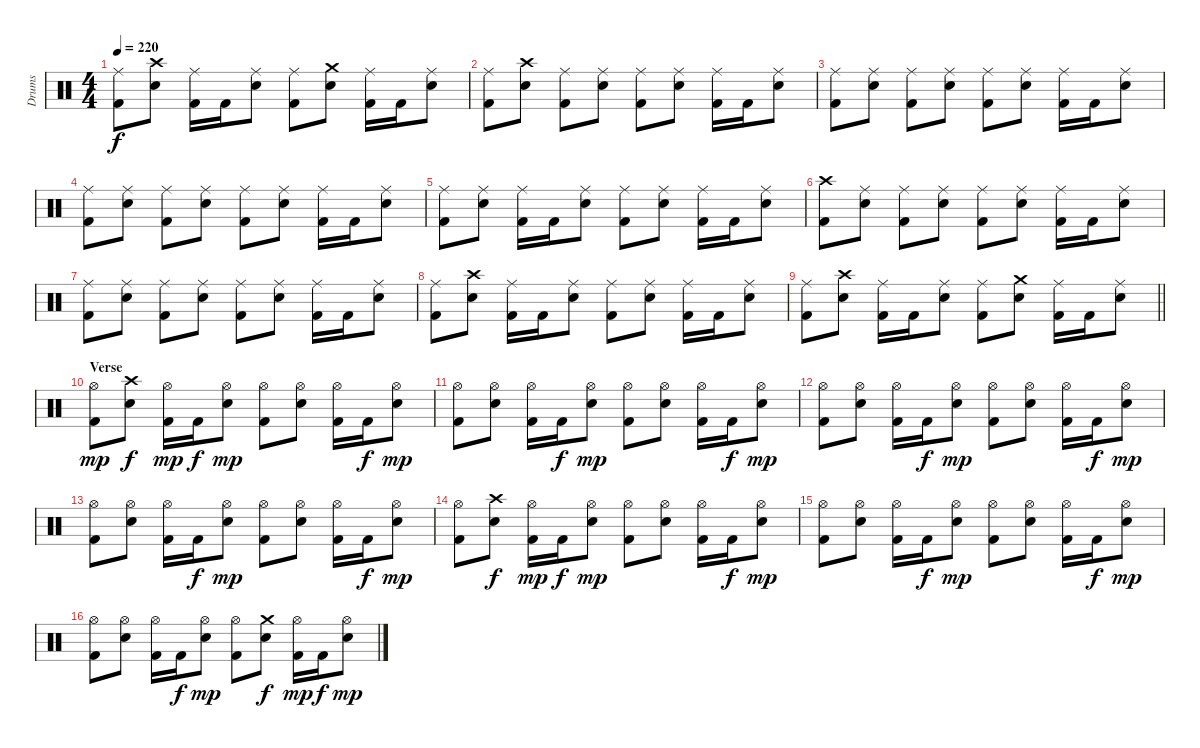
\track ("Drums" "Drums") {instrument percussion}
\staff {score}
\articulation defaults
\ts (4 4)
\tempo 220
\clef neutral
\ks c
("Ride (middle)" "Kick (hit) 2").8{dy f} ("Crash high (hit)" "Snare (hit) 2").8 ("Ride (middle)" "Kick (hit) 2").16 "Kick (hit) 2".16 ("Ride (middle)" "Snare (hit) 2").8 ("Ride (middle)" "Kick (hit) 2").8 ("Crash medium (hit)" "Snare (hit) 2").8 ("Ride (middle)" "Kick (hit) 2").16 "Kick (hit) 2".16 ("Ride (middle)" "Snare (hit) 2").8 |
("Ride (middle)" "Kick (hit) 2").8 ("Crash high (hit)" "Snare (hit) 2").8 ("Ride (middle)" "Kick (hit) 2").8 ("Ride (middle)" "Snare (hit) 2").8 ("Ride (middle)" "Kick (hit) 2").8 ("Ride (middle)" "Snare (hit) 2").8 ("Ride (middle)" "Kick (hit) 2").16 "Kick (hit) 2".16 ("Ride (middle)" "Snare (hit) 2").8 |
("Ride (middle)" "Kick (hit) 2").8 ("Ride (middle)" "Snare (hit) 2").8 ("Ride (middle)" "Kick (hit) 2").8 ("Ride (middle)" "Snare (hit) 2").8 ("Ride (middle)" "Kick (hit) 2").8 ("Ride (middle)" "Snare (hit) 2").8 ("Ride (middle)" "Kick (hit) 2").16 "Kick (hit) 2".16 ("Ride (middle)" "Snare (hit) 2").8 |
("Ride (middle)" "Kick (hit) 2").8 ("Ride (middle)" "Snare (hit) 2").8 ("Ride (middle)" "Kick (hit) 2").8 ("Ride (middle)" "Snare (hit) 2").8 ("Ride (middle)" "Kick (hit) 2").8 ("Ride (middle)" "Snare (hit) 2").8 ("Ride (middle)" "Kick (hit) 2").16 "Kick (hit) 2".16 ("Ride (middle)" "Snare (hit) 2").8 |
("Ride (middle)" "Kick (hit) 2").8 ("Ride (middle)" "Snare (hit) 2").8 ("Ride (middle)" "Kick (hit) 2").16 "Kick (hit) 2".16 ("Ride (middle)" "Snare (hit) 2").8 ("Ride (middle)" "Kick (hit) 2").8 ("Ride (middle)" "Snare (hit) 2").8 ("Ride (middle)" "Kick (hit) 2").16 "Kick (hit) 2".16 ("Ride (middle)" "Snare (hit) 2").8 |
("Crash high (hit)" "Kick (hit) 2").8 ("Ride (middle)" "Snare (hit) 2").8 ("Ride (middle)" "Kick (hit) 2").8 ("Ride (middle)" "Snare (hit) 2").8 ("Ride (middle)" "Kick (hit) 2").8 ("Ride (middle)" "Snare (hit) 2").8 ("Ride (middle)" "Kick (hit) 2").16 "Kick (hit) 2".16 ("Ride (middle)" "Snare (hit) 2").8 |
("Ride (middle)" "Kick (hit) 2").8 ("Ride (middle)" "Snare (hit) 2").8 ("Ride (middle)" "Kick (hit) 2").8 ("Ride (middle)" "Snare (hit) 2").8 ("Ride (middle)" "Kick (hit) 2").8 ("Ride (middle)" "Snare (hit) 2").8 ("Ride (middle)" "Kick (hit) 2").16 "Kick (hit) 2".16 ("Ride (middle)" "Snare (hit) 2").8 |
("Ride (middle)" "Kick (hit) 2").8 ("Crash high (hit)" "Snare (hit) 2").8 ("Ride (middle)" "Kick (hit) 2").16 "Kick (hit) 2".16 ("Ride (middle)" "Snare (hit) 2").8 ("Ride (middle)" "Kick (hit) 2").8 ("Ride (middle)" "Snare (hit) 2").8 ("Ride (middle)" "Kick (hit) 2").16 "Kick (hit) 2".16 ("Ride (middle)" "Snare (hit) 2").8 |
\barLineRight lightlight
("Ride (middle)" "Kick (hit) 2").8 ("Crash high (hit)" "Snare (hit) 2").8 ("Ride (middle)" "Kick (hit) 2").16 "Kick (hit) 2".16 ("Ride (middle)" "Snare (hit) 2").8 ("Ride (middle)" "Kick (hit) 2").8 ("Crash medium (hit)" "Snare (hit) 2").8 ("Ride (middle)" "Kick (hit) 2").16 "Kick (hit) 2".16 ("Ride (middle)" "Snare (hit) 2").8 |
\section ("" "Verse")
("Hi-Hat (open)" "Kick (hit) 2").8{dy mp} ("Crash high (hit)" "Snare (hit) 2").8{dy f} ("Hi-Hat (open)" "Kick (hit) 2").16{dy mp} "Kick (hit) 2".16{dy f} ("Hi-Hat (open)" "Snare (hit) 2").8{dy mp} ("Hi-Hat (open)" "Kick (hit) 2").8 ("Hi-Hat (open)" "Snare (hit) 2").8 ("Hi-Hat (open)" "Kick (hit) 2").16 "Kick (hit) 2".16{dy f} ("Hi-Hat (open)" "Snare (hit) 2").8{dy mp} |
("Hi-Hat (open)" "Kick (hit) 2").8 ("Hi-Hat (open)" "Snare (hit) 2").8 ("Hi-Hat (open)" "Kick (hit) 2").16 "Kick (hit) 2".16{dy f} ("Hi-Hat (open)" "Snare (hit) 2").8{dy mp} ("Hi-Hat (open)" "Kick (hit) 2").8 ("Hi-Hat (open)" "Snare (hit) 2").8 ("Hi-Hat (open)" "Kick (hit) 2").16 "Kick (hit) 2".16{dy f} ("Hi-Hat (open)" "Snare (hit) 2").8{dy mp} |
("Hi-Hat (open)" "Kick (hit) 2").8 ("Hi-Hat (open)" "Snare (hit) 2").8 ("Hi-Hat (open)" "Kick (hit) 2").16 "Kick (hit) 2".16{dy f} ("Hi-Hat (open)" "Snare (hit) 2").8{dy mp} ("Hi-Hat (open)" "Kick (hit) 2").8 ("Hi-Hat (open)" "Snare (hit) 2").8 ("Hi-Hat (open)" "Kick (hit) 2").16 "Kick (hit) 2".16{dy f} ("Hi-Hat (open)" "Snare (hit) 2").8{dy mp} |
("Hi-Hat (open)" "Kick (hit) 2").8 ("Hi-Hat (open)" "Snare (hit) 2").8 ("Hi-Hat (open)" "Kick (hit) 2").16 "Kick (hit) 2".16{dy f} ("Hi-Hat (open)" "Snare (hit) 2").8{dy mp} ("Hi-Hat (open)" "Kick (hit) 2").8 ("Hi-Hat (open)" "Snare (hit) 2").8 ("Hi-Hat (open)" "Kick (hit) 2").16 "Kick (hit) 2".16{dy f} ("Hi-Hat (open)" "Snare (hit) 2").8{dy mp} |
("Hi-Hat (open)" "Kick (hit) 2").8 ("Crash high (hit)" "Snare (hit) 2").8{dy f} ("Hi-Hat (open)" "Kick (hit) 2").16{dy mp} "Kick (hit) 2".16{dy f} ("Hi-Hat (open)" "Snare (hit) 2").8{dy mp} ("Hi-Hat (open)" "Kick (hit) 2").8 ("Hi-Hat (open)" "Snare (hit) 2").8 ("Hi-Hat (open)" "Kick (hit) 2").16 "Kick (hit) 2".16{dy f} ("Hi-Hat (open)" "Snare (hit) 2").8{dy mp} |
("Hi-Hat (open)" "Kick (hit) 2").8 ("Hi-Hat (open)" "Snare (hit) 2").8 ("Hi-Hat (open)" "Kick (hit) 2").16 "Kick (hit) 2".16{dy f} ("Hi-Hat (open)" "Snare (hit) 2").8{dy mp} ("Hi-Hat (open)" "Kick (hit) 2").8 ("Hi-Hat (open)" "Snare (hit) 2").8 ("Hi-Hat (open)" "Kick (hit) 2").16 "Kick (hit) 2".16{dy f} ("Hi-Hat (open)" "Snare (hit) 2").8{dy mp} |
("Hi-Hat (open)" "Kick (hit) 2").8 ("Hi-Hat (open)" "Snare (hit) 2").8 ("Hi-Hat (open)" "Kick (hit) 2").16 "Kick (hit) 2".16{dy f} ("Hi-Hat (open)" "Snare (hit) 2").8{dy mp} ("Hi-Hat (open)" "Kick (hit) 2").8 ("Crash medium (hit)" "Snare (hit) 2").8{dy f} ("Hi-Hat (open)" "Kick (hit) 2").16{dy mp} "Kick (hit) 2".16{dy f} ("Hi-Hat (open)" "Snare (hit) 2").8{dy mp}
